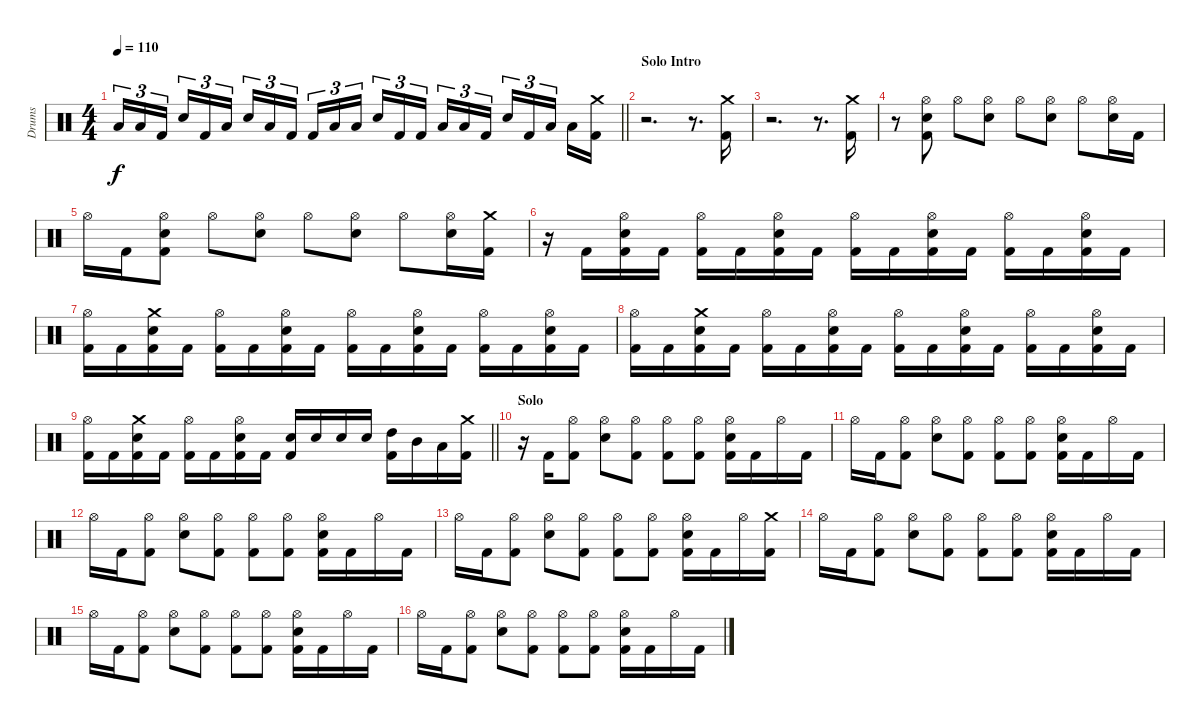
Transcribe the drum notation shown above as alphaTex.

\track ("Drums" "Drums") {instrument percussion}
\staff {score}
\articulation defaults
\ts (4 4)
\tempo 110
\clef neutral
\barLineRight lightlight
\ks c "Low Tom (hit)".16{tu (3 2) dy f} "Low Tom (hit)".16{tu (3 2)} "Kick (hit) 2".16{tu (3 2) beam splitsecondary} "Snare (hit) 2".16{tu (3 2)} "Kick (hit) 2".16{tu (3 2)} "Low Tom (hit)".16{tu (3 2)} "Snare (hit) 2".16{tu (3 2)} "Low Tom (hit)".16{tu (3 2)} "Kick (hit) 2".16{tu (3 2) beam splitsecondary} "Kick (hit) 2".16{tu (3 2)} "Low Tom (hit)".16{tu (3 2)} "Low Tom (hit)".16{tu (3 2)} "Snare (hit) 2".16{tu (3 2)} "Kick (hit) 2".16{tu (3 2)} "Kick (hit) 2".16{tu (3 2) beam splitsecondary} "Low Tom (hit)".16{tu (3 2)} "Low Tom (hit)".16{tu (3 2)} "Kick (hit) 2".16{tu (3 2)} "Snare (hit) 2".16{tu (3 2)} "Kick (hit) 2".16{tu (3 2)} "Low Tom (hit)".16{tu (3 2) beam splitsecondary} "Low Tom (hit)".16
("Crash medium (hit)" "Kick (hit) 2").16 |
\section ("" "Solo Intro")
r.2{d} r.8{d} ("Crash medium (hit)" "Kick (hit) 2").16 |
r.2{d} r.8{d} ("Crash medium (hit)" "Kick (hit) 2").16 |
r.8 ("Hi-Hat (open)" "Snare (hit) 2" "Kick (hit) 2").8 "Hi-Hat (open)".8 ("Hi-Hat (open)" "Snare (hit) 2").8 "Hi-Hat (open)".8 ("Hi-Hat (open)" "Snare (hit) 2").8 "Hi-Hat (open)".8 ("Hi-Hat (open)" "Snare (hit) 2").16 "Kick (hit) 2".16 |
"Hi-Hat (open)".16 "Kick (hit) 2".16 ("Hi-Hat (open)" "Snare (hit) 2" "Kick (hit) 2").8 "Hi-Hat (open)".8 ("Hi-Hat (open)" "Snare (hit) 2").8 "Hi-Hat (open)".8 ("Hi-Hat (open)" "Snare (hit) 2").8 "Hi-Hat (open)".8 ("Hi-Hat (open)" "Snare (hit) 2").16 ("Crash medium (hit)" "Kick (hit) 2").16 |
r.16 "Kick (hit) 2".16 ("Hi-Hat (open)" "Snare (hit) 2" "Kick (hit) 2").16 "Kick (hit) 2".16 ("Hi-Hat (open)" "Kick (hit) 2").16 "Kick (hit) 2".16 ("Hi-Hat (open)" "Snare (hit) 2" "Kick (hit) 2").16 "Kick (hit) 2".16 ("Hi-Hat (open)" "Kick (hit) 2").16 "Kick (hit) 2".16 ("Hi-Hat (open)" "Snare (hit) 2" "Kick (hit) 2").16 "Kick (hit) 2".16 ("Hi-Hat (open)" "Kick (hit) 2").16 "Kick (hit) 2".16 ("Hi-Hat (open)" "Snare (hit) 2" "Kick (hit) 2").16 "Kick (hit) 2".16 |
("Hi-Hat (open)" "Kick (hit) 2").16 "Kick (hit) 2".16 ("Crash medium (hit)" "Snare (hit) 2" "Kick (hit) 2").16 "Kick (hit) 2".16 ("Hi-Hat (open)" "Kick (hit) 2").16 "Kick (hit) 2".16 ("Hi-Hat (open)" "Snare (hit) 2" "Kick (hit) 2").16 "Kick (hit) 2".16 ("Hi-Hat (open)" "Kick (hit) 2").16 "Kick (hit) 2".16 ("Hi-Hat (open)" "Snare (hit) 2" "Kick (hit) 2").16 "Kick (hit) 2".16 ("Hi-Hat (open)" "Kick (hit) 2").16 "Kick (hit) 2".16 ("Hi-Hat (open)" "Snare (hit) 2" "Kick (hit) 2").16 "Kick (hit) 2".16 |
("Hi-Hat (open)" "Kick (hit) 2").16 "Kick (hit) 2".16 ("Crash medium (hit)" "Snare (hit) 2" "Kick (hit) 2").16 "Kick (hit) 2".16 ("Hi-Hat (open)" "Kick (hit) 2").16 "Kick (hit) 2".16 ("Hi-Hat (open)" "Snare (hit) 2" "Kick (hit) 2").16 "Kick (hit) 2".16 ("Hi-Hat (open)" "Kick (hit) 2").16 "Kick (hit) 2".16 ("Hi-Hat (open)" "Snare (hit) 2" "Kick (hit) 2").16 "Kick (hit) 2".16 ("Hi-Hat (open)" "Kick (hit) 2").16 "Kick (hit) 2".16 ("Hi-Hat (open)" "Snare (hit) 2" "Kick (hit) 2").16 "Kick (hit) 2".16 |
\barLineRight lightlight
("Hi-Hat (open)" "Kick (hit) 2").16 "Kick (hit) 2".16 ("Crash medium (hit)" "Snare (hit) 2" "Kick (hit) 2").16 "Kick (hit) 2".16 ("Hi-Hat (open)" "Kick (hit) 2").16 "Kick (hit) 2".16 ("Hi-Hat (open)" "Snare (hit) 2" "Kick (hit) 2").16 "Kick (hit) 2".16 ("Snare (hit) 2" "Kick (hit) 2").16 "Snare (hit) 2".16 "Snare (hit) 2".16 "Snare (hit) 2".16 ("High Tom (hit)" "Kick (hit) 2").16 "Mid Tom (hit)".16 "Low Tom (hit)".16 ("Crash medium (hit)" "Kick (hit) 2").16 |
\section ("" "Solo")
r.16 "Kick (hit) 2".16 ("Hi-Hat (open)" "Kick (hit) 2").8 ("Hi-Hat (open)" "Snare (hit) 2").8 ("Hi-Hat (open)" "Kick (hit) 2").8 ("Hi-Hat (open)" "Kick (hit) 2").8 ("Hi-Hat (open)" "Kick (hit) 2").8 ("Hi-Hat (open)" "Snare (hit) 2" "Kick (hit) 2").16 "Kick (hit) 2".16 "Hi-Hat (open)".16 "Kick (hit) 2".16 |
"Hi-Hat (open)".16 "Kick (hit) 2".16 ("Hi-Hat (open)" "Kick (hit) 2").8 ("Hi-Hat (open)" "Snare (hit) 2").8 ("Hi-Hat (open)" "Kick (hit) 2").8 ("Hi-Hat (open)" "Kick (hit) 2").8 ("Hi-Hat (open)" "Kick (hit) 2").8 ("Hi-Hat (open)" "Snare (hit) 2" "Kick (hit) 2").16 "Kick (hit) 2".16 "Hi-Hat (open)".16 "Kick (hit) 2".16 |
"Hi-Hat (open)".16 "Kick (hit) 2".16 ("Hi-Hat (open)" "Kick (hit) 2").8 ("Hi-Hat (open)" "Snare (hit) 2").8 ("Hi-Hat (open)" "Kick (hit) 2").8 ("Hi-Hat (open)" "Kick (hit) 2").8 ("Hi-Hat (open)" "Kick (hit) 2").8 ("Hi-Hat (open)" "Snare (hit) 2" "Kick (hit) 2").16 "Kick (hit) 2".16 "Hi-Hat (open)".16 "Kick (hit) 2".16 |
"Hi-Hat (open)".16 "Kick (hit) 2".16 ("Hi-Hat (open)" "Kick (hit) 2").8 ("Hi-Hat (open)" "Snare (hit) 2").8 ("Hi-Hat (open)" "Kick (hit) 2").8 ("Hi-Hat (open)" "Kick (hit) 2").8 ("Hi-Hat (open)" "Kick (hit) 2").8 ("Hi-Hat (open)" "Snare (hit) 2" "Kick (hit) 2").16 "Kick (hit) 2".16 "Hi-Hat (open)".16 ("Crash medium (hit)" "Kick (hit) 2").16 |
"Hi-Hat (open)".16 "Kick (hit) 2".16 ("Hi-Hat (open)" "Kick (hit) 2").8 ("Hi-Hat (open)" "Snare (hit) 2").8 ("Hi-Hat (open)" "Kick (hit) 2").8 ("Hi-Hat (open)" "Kick (hit) 2").8 ("Hi-Hat (open)" "Kick (hit) 2").8 ("Hi-Hat (open)" "Snare (hit) 2" "Kick (hit) 2").16 "Kick (hit) 2".16 "Hi-Hat (open)".16 "Kick (hit) 2".16 |
"Hi-Hat (open)".16 "Kick (hit) 2".16 ("Hi-Hat (open)" "Kick (hit) 2").8 ("Hi-Hat (open)" "Snare (hit) 2").8 ("Hi-Hat (open)" "Kick (hit) 2").8 ("Hi-Hat (open)" "Kick (hit) 2").8 ("Hi-Hat (open)" "Kick (hit) 2").8 ("Hi-Hat (open)" "Snare (hit) 2" "Kick (hit) 2").16 "Kick (hit) 2".16 "Hi-Hat (open)".16 "Kick (hit) 2".16 |
"Hi-Hat (open)".16 "Kick (hit) 2".16 ("Hi-Hat (open)" "Kick (hit) 2").8 ("Hi-Hat (open)" "Snare (hit) 2").8 ("Hi-Hat (open)" "Kick (hit) 2").8 ("Hi-Hat (open)" "Kick (hit) 2").8 ("Hi-Hat (open)" "Kick (hit) 2").8 ("Hi-Hat (open)" "Snare (hit) 2" "Kick (hit) 2").16 "Kick (hit) 2".16 "Hi-Hat (open)".16 "Kick (hit) 2".16
